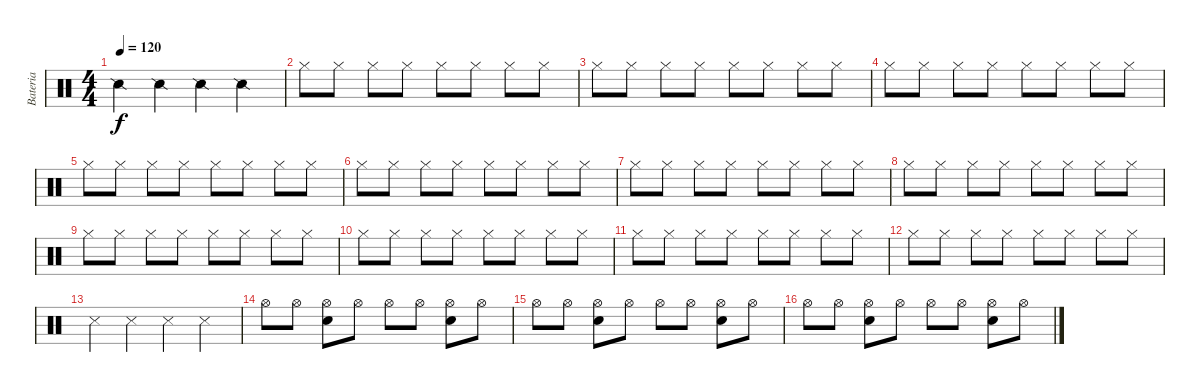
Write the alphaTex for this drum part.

\track ("Bateria" "Bateria") {instrument percussion}
\staff {score}
\articulation defaults
\ts (4 4)
\tempo 120
\clef neutral
\ks c "Snare (side stick) 2".4{dy f} "Snare (side stick) 2".4 "Snare (side stick) 2".4 "Snare (side stick) 2".4
|
"Hi-Hat (closed)".8 "Hi-Hat (closed)".8 "Hi-Hat (closed)".8 "Hi-Hat (closed)".8 "Hi-Hat (closed)".8 "Hi-Hat (closed)".8 "Hi-Hat (closed)".8 "Hi-Hat (closed)".8 |
"Hi-Hat (closed)".8 "Hi-Hat (closed)".8 "Hi-Hat (closed)".8 "Hi-Hat (closed)".8 "Hi-Hat (closed)".8 "Hi-Hat (closed)".8 "Hi-Hat (closed)".8 "Hi-Hat (closed)".8 |
"Hi-Hat (closed)".8 "Hi-Hat (closed)".8 "Hi-Hat (closed)".8 "Hi-Hat (closed)".8 "Hi-Hat (closed)".8 "Hi-Hat (closed)".8 "Hi-Hat (closed)".8 "Hi-Hat (closed)".8 |
"Hi-Hat (closed)".8 "Hi-Hat (closed)".8 "Hi-Hat (closed)".8 "Hi-Hat (closed)".8 "Hi-Hat (closed)".8 "Hi-Hat (closed)".8 "Hi-Hat (closed)".8 "Hi-Hat (closed)".8 |
"Hi-Hat (closed)".8 "Hi-Hat (closed)".8 "Hi-Hat (closed)".8 "Hi-Hat (closed)".8 "Hi-Hat (closed)".8 "Hi-Hat (closed)".8 "Hi-Hat (closed)".8 "Hi-Hat (closed)".8 |
"Hi-Hat (closed)".8 "Hi-Hat (closed)".8 "Hi-Hat (closed)".8 "Hi-Hat (closed)".8 "Hi-Hat (closed)".8 "Hi-Hat (closed)".8 "Hi-Hat (closed)".8 "Hi-Hat (closed)".8 |
"Hi-Hat (closed)".8 "Hi-Hat (closed)".8 "Hi-Hat (closed)".8 "Hi-Hat (closed)".8 "Hi-Hat (closed)".8 "Hi-Hat (closed)".8 "Hi-Hat (closed)".8 "Hi-Hat (closed)".8 |
"Hi-Hat (closed)".8 "Hi-Hat (closed)".8 "Hi-Hat (closed)".8 "Hi-Hat (closed)".8 "Hi-Hat (closed)".8 "Hi-Hat (closed)".8 "Hi-Hat (closed)".8 "Hi-Hat (closed)".8 |
"Hi-Hat (closed)".8 "Hi-Hat (closed)".8 "Hi-Hat (closed)".8 "Hi-Hat (closed)".8 "Hi-Hat (closed)".8 "Hi-Hat (closed)".8 "Hi-Hat (closed)".8 "Hi-Hat (closed)".8 |
"Hi-Hat (closed)".8 "Hi-Hat (closed)".8 "Hi-Hat (closed)".8 "Hi-Hat (closed)".8 "Hi-Hat (closed)".8 "Hi-Hat (closed)".8 "Hi-Hat (closed)".8 "Hi-Hat (closed)".8 |
"Hi-Hat (closed)".8 "Hi-Hat (closed)".8 "Hi-Hat (closed)".8 "Hi-Hat (closed)".8 "Hi-Hat (closed)".8 "Hi-Hat (closed)".8 "Hi-Hat (closed)".8 "Hi-Hat (closed)".8 |
"Snare (side stick) 3".4 "Snare (side stick) 3".4 "Snare (side stick) 3".4 "Snare (side stick) 3".4 |
"Hi-Hat (open)".8 "Hi-Hat (open)".8 ("Hi-Hat (open)" "Electric Snare (hit)").8 "Hi-Hat (open)".8 "Hi-Hat (open)".8 "Hi-Hat (open)".8 ("Hi-Hat (open)" "Electric Snare (hit)").8 "Hi-Hat (open)".8 |
"Hi-Hat (open)".8 "Hi-Hat (open)".8 ("Hi-Hat (open)" "Electric Snare (hit)").8 "Hi-Hat (open)".8 "Hi-Hat (open)".8 "Hi-Hat (open)".8 ("Hi-Hat (open)" "Electric Snare (hit)").8 "Hi-Hat (open)".8 |
"Hi-Hat (open)".8 "Hi-Hat (open)".8 ("Hi-Hat (open)" "Electric Snare (hit)").8 "Hi-Hat (open)".8 "Hi-Hat (open)".8 "Hi-Hat (open)".8 ("Hi-Hat (open)" "Electric Snare (hit)").8 "Hi-Hat (open)".8
